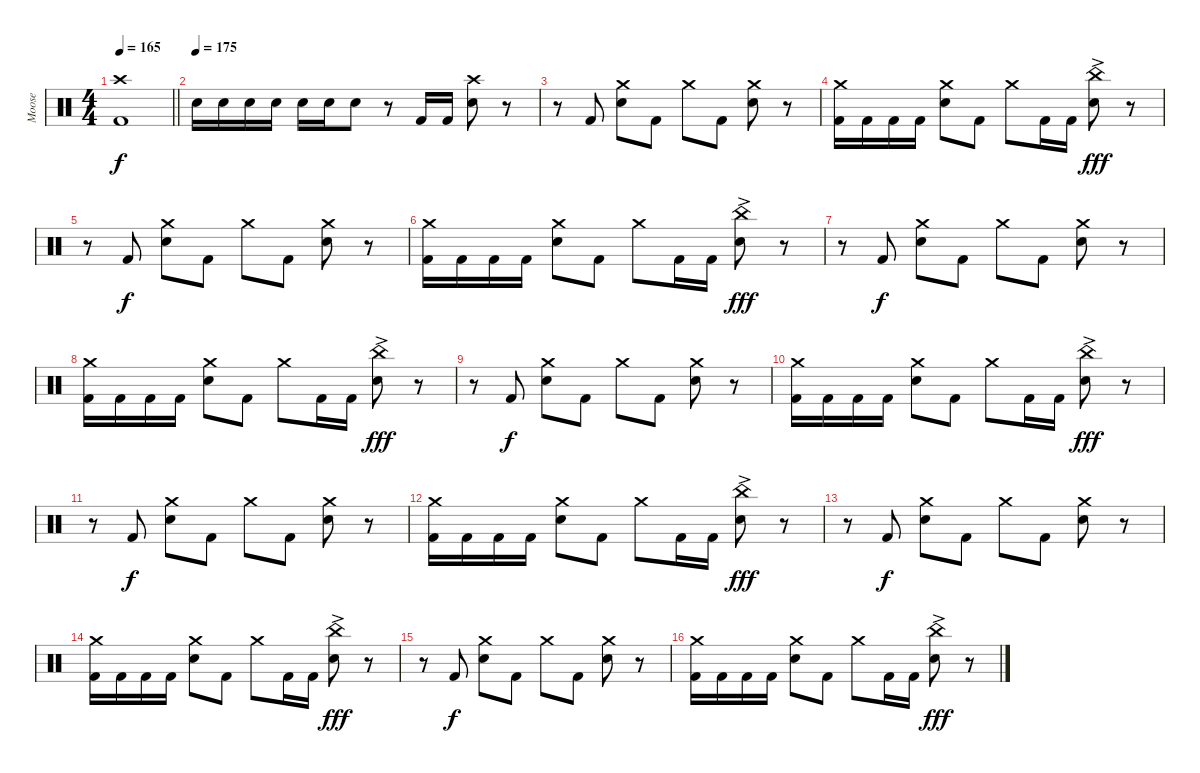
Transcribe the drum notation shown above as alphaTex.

\track ("Moose" "Moose") {instrument percussion}
\staff {score}
\articulation defaults
\ts (4 4)
\tempo 165
\clef neutral
\barLineRight lightlight
\ks c
("Crash high (hit)" "Kick (hit) 2").1{dy f} |
\tempo (175)
"Electric Snare (hit)".16 "Electric Snare (hit)".16 "Electric Snare (hit)".16 "Electric Snare (hit)".16 "Electric Snare (hit)".16 "Electric Snare (hit)".16 "Electric Snare (hit)".8 r.8 "Kick (hit) 2".16 "Kick (hit) 2".16 ("Crash high (hit)" "Electric Snare (hit)").8 r.8 |
r.8 "Kick (hit) 2".8 ("Crash medium (hit)" "Electric Snare (hit)").8 "Kick (hit) 2".8 "Crash medium (hit)".8 "Kick (hit) 2".8 ("Crash medium (hit)" "Electric Snare (hit)").8 r.8 |
("Crash medium (hit)" "Kick (hit) 2").16 "Kick (hit) 2".16 "Kick (hit) 2".16 "Kick (hit) 2".16 ("Crash medium (hit)" "Electric Snare (hit)").8 "Kick (hit) 2".8 "Crash medium (hit)".8 "Kick (hit) 2".16 "Kick (hit) 2".16 ("China (hit)"{ac} "Electric Snare (hit)").8{dy fff} r.8 |
r.8 "Kick (hit) 2".8{dy f} ("Crash medium (hit)" "Electric Snare (hit)").8 "Kick (hit) 2".8 "Crash medium (hit)".8 "Kick (hit) 2".8 ("Crash medium (hit)" "Electric Snare (hit)").8 r.8 |
("Crash medium (hit)" "Kick (hit) 2").16 "Kick (hit) 2".16 "Kick (hit) 2".16 "Kick (hit) 2".16 ("Crash medium (hit)" "Electric Snare (hit)").8 "Kick (hit) 2".8 "Crash medium (hit)".8 "Kick (hit) 2".16 "Kick (hit) 2".16 ("China (hit)"{ac} "Electric Snare (hit)").8{dy fff} r.8 |
r.8 "Kick (hit) 2".8{dy f} ("Crash medium (hit)" "Electric Snare (hit)").8 "Kick (hit) 2".8 "Crash medium (hit)".8 "Kick (hit) 2".8 ("Crash medium (hit)" "Electric Snare (hit)").8 r.8 |
("Crash medium (hit)" "Kick (hit) 2").16 "Kick (hit) 2".16 "Kick (hit) 2".16 "Kick (hit) 2".16 ("Crash medium (hit)" "Electric Snare (hit)").8 "Kick (hit) 2".8 "Crash medium (hit)".8 "Kick (hit) 2".16 "Kick (hit) 2".16 ("China (hit)"{ac} "Electric Snare (hit)").8{dy fff} r.8 |
r.8 "Kick (hit) 2".8{dy f} ("Crash medium (hit)" "Electric Snare (hit)").8 "Kick (hit) 2".8 "Crash medium (hit)".8 "Kick (hit) 2".8 ("Crash medium (hit)" "Electric Snare (hit)").8 r.8 |
("Crash medium (hit)" "Kick (hit) 2").16 "Kick (hit) 2".16 "Kick (hit) 2".16 "Kick (hit) 2".16 ("Crash medium (hit)" "Electric Snare (hit)").8 "Kick (hit) 2".8 "Crash medium (hit)".8 "Kick (hit) 2".16 "Kick (hit) 2".16 ("China (hit)"{ac} "Electric Snare (hit)").8{dy fff} r.8 |
r.8 "Kick (hit) 2".8{dy f} ("Crash medium (hit)" "Electric Snare (hit)").8 "Kick (hit) 2".8 "Crash medium (hit)".8 "Kick (hit) 2".8 ("Crash medium (hit)" "Electric Snare (hit)").8 r.8 |
("Crash medium (hit)" "Kick (hit) 2").16 "Kick (hit) 2".16 "Kick (hit) 2".16 "Kick (hit) 2".16 ("Crash medium (hit)" "Electric Snare (hit)").8 "Kick (hit) 2".8 "Crash medium (hit)".8 "Kick (hit) 2".16 "Kick (hit) 2".16 ("China (hit)"{ac} "Electric Snare (hit)").8{dy fff} r.8 |
r.8 "Kick (hit) 2".8{dy f} ("Crash medium (hit)" "Electric Snare (hit)").8 "Kick (hit) 2".8 "Crash medium (hit)".8 "Kick (hit) 2".8 ("Crash medium (hit)" "Electric Snare (hit)").8 r.8 |
("Crash medium (hit)" "Kick (hit) 2").16 "Kick (hit) 2".16 "Kick (hit) 2".16 "Kick (hit) 2".16 ("Crash medium (hit)" "Electric Snare (hit)").8 "Kick (hit) 2".8 "Crash medium (hit)".8 "Kick (hit) 2".16 "Kick (hit) 2".16 ("China (hit)"{ac} "Electric Snare (hit)").8{dy fff} r.8 |
r.8 "Kick (hit) 2".8{dy f} ("Crash medium (hit)" "Electric Snare (hit)").8 "Kick (hit) 2".8 "Crash medium (hit)".8 "Kick (hit) 2".8 ("Crash medium (hit)" "Electric Snare (hit)").8 r.8 |
("Crash medium (hit)" "Kick (hit) 2").16 "Kick (hit) 2".16 "Kick (hit) 2".16 "Kick (hit) 2".16 ("Crash medium (hit)" "Electric Snare (hit)").8 "Kick (hit) 2".8 "Crash medium (hit)".8 "Kick (hit) 2".16 "Kick (hit) 2".16 ("China (hit)"{ac} "Electric Snare (hit)").8{dy fff} r.8
